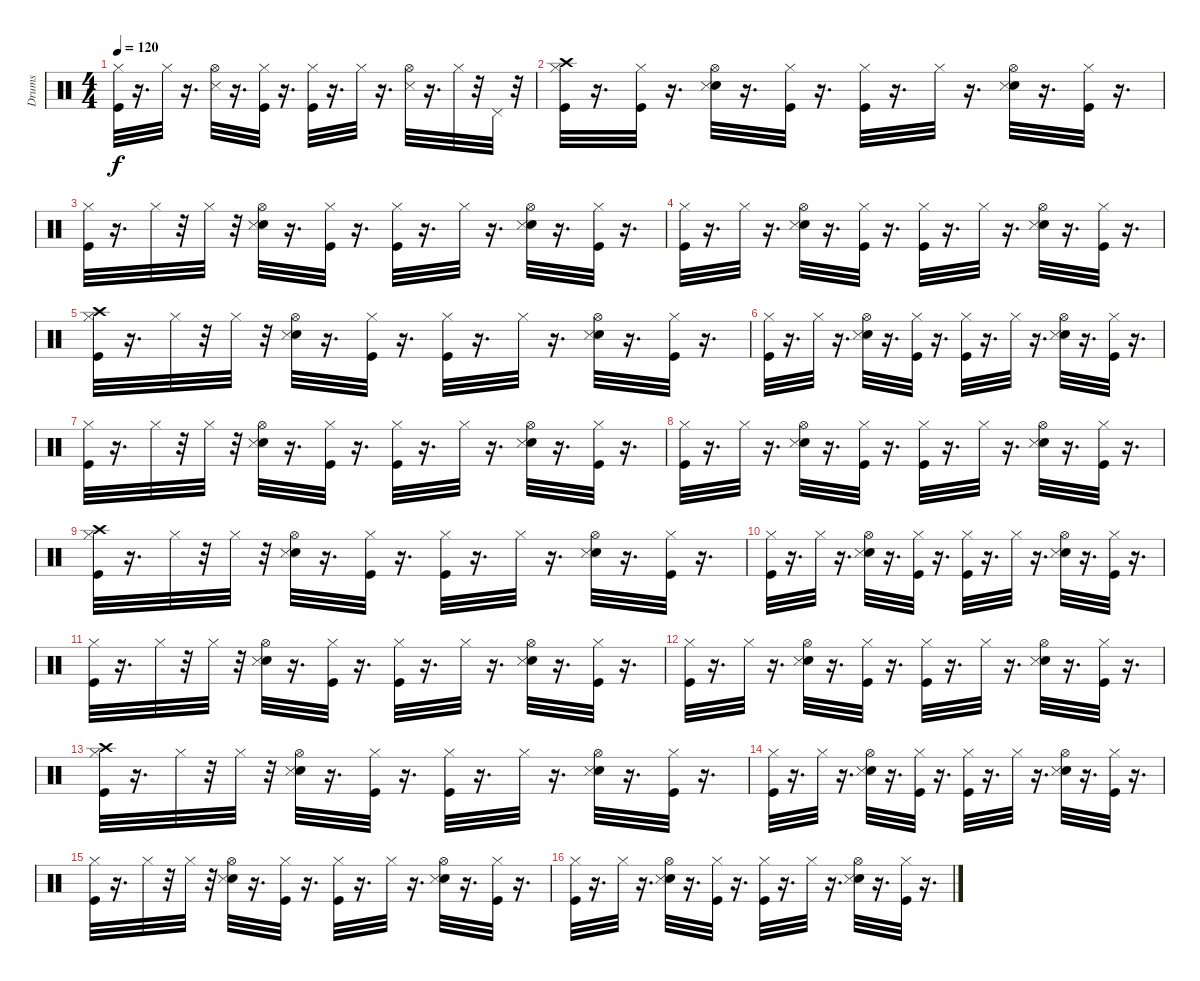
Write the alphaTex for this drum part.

\track ("Drums" "Drums") {instrument percussion}
\staff {score}
\articulation defaults
\ts (4 4)
\tempo 120
\clef neutral
\ks c
("Hi-Hat (closed)" "Kick (hit)").32{dy f} r.16{d} "Hi-Hat (closed)".32 r.16{d} ("Hi-Hat (open)" "Snare (side stick) 3").32 r.16{d} ("Hi-Hat (closed)" "Kick (hit)").32 r.16{d} ("Hi-Hat (closed)" "Kick (hit)").32 r.16{d} "Hi-Hat (closed)".32 r.16{d} ("Hi-Hat (open)" "Snare (side stick) 3").32 r.16{d} "Hi-Hat (closed)".32 r.32 "Pedal Hi-Hat (hit)".32 r.32 |
("Crash high (hit)" "Hi-Hat (closed)" "Kick (hit)").32 r.16{d} ("Kick (hit)" "Hi-Hat (closed)").32 r.16{d} ("Snare (hit) 2" "Hi-Hat (open)" "Snare (side stick) 3").32 r.16{d} ("Hi-Hat (closed)" "Kick (hit)").32 r.16{d} ("Hi-Hat (closed)" "Kick (hit)").32 r.16{d} "Hi-Hat (closed)".32 r.16{d} ("Snare (hit) 2" "Hi-Hat (open)" "Snare (side stick) 3").32 r.16{d} ("Kick (hit)" "Hi-Hat (closed)").32 r.16{d} |
("Hi-Hat (closed)" "Kick (hit)").32 r.16{d} "Hi-Hat (closed)".32 r.32 "Hi-Hat (closed)".32 r.32 ("Snare (hit) 2" "Hi-Hat (open)" "Snare (side stick) 3").32 r.16{d} ("Hi-Hat (closed)" "Kick (hit)").32 r.16{d} ("Hi-Hat (closed)" "Kick (hit)").32 r.16{d} "Hi-Hat (closed)".32 r.16{d} ("Snare (hit) 2" "Hi-Hat (open)" "Snare (side stick) 3").32 r.16{d} ("Kick (hit)" "Hi-Hat (closed)").32 r.16{d} |
("Hi-Hat (closed)" "Kick (hit)").32 r.16{d} "Hi-Hat (closed)".32 r.16{d} ("Snare (hit) 2" "Hi-Hat (open)" "Snare (side stick) 3").32 r.16{d} ("Hi-Hat (closed)" "Kick (hit)").32 r.16{d} ("Hi-Hat (closed)" "Kick (hit)").32 r.16{d} "Hi-Hat (closed)".32 r.16{d} ("Snare (hit) 2" "Hi-Hat (open)" "Snare (side stick) 3").32 r.16{d} ("Kick (hit)" "Hi-Hat (closed)").32 r.16{d} |
("Crash high (hit)" "Hi-Hat (closed)" "Kick (hit)").32 r.16{d} "Hi-Hat (closed)".32 r.32 "Hi-Hat (closed)".32 r.32 ("Snare (hit) 2" "Hi-Hat (open)" "Snare (side stick) 3").32 r.16{d} ("Hi-Hat (closed)" "Kick (hit)").32 r.16{d} ("Hi-Hat (closed)" "Kick (hit)").32 r.16{d} "Hi-Hat (closed)".32 r.16{d} ("Snare (hit) 2" "Hi-Hat (open)" "Snare (side stick) 3").32 r.16{d} ("Kick (hit)" "Hi-Hat (closed)").32 r.16{d} |
("Hi-Hat (closed)" "Kick (hit)").32 r.16{d} "Hi-Hat (closed)".32 r.16{d} ("Snare (hit) 2" "Hi-Hat (open)" "Snare (side stick) 3").32 r.16{d} ("Hi-Hat (closed)" "Kick (hit)").32 r.16{d} ("Hi-Hat (closed)" "Kick (hit)").32 r.16{d} "Hi-Hat (closed)".32 r.16{d} ("Snare (hit) 2" "Hi-Hat (open)" "Snare (side stick) 3").32 r.16{d} ("Kick (hit)" "Hi-Hat (closed)").32 r.16{d} |
("Hi-Hat (closed)" "Kick (hit)").32 r.16{d} "Hi-Hat (closed)".32 r.32 "Hi-Hat (closed)".32 r.32 ("Snare (hit) 2" "Hi-Hat (open)" "Snare (side stick) 3").32 r.16{d} ("Hi-Hat (closed)" "Kick (hit)").32 r.16{d} ("Hi-Hat (closed)" "Kick (hit)").32 r.16{d} "Hi-Hat (closed)".32 r.16{d} ("Snare (hit) 2" "Hi-Hat (open)" "Snare (side stick) 3").32 r.16{d} ("Kick (hit)" "Hi-Hat (closed)").32 r.16{d} |
("Hi-Hat (closed)" "Kick (hit)").32 r.16{d} "Hi-Hat (closed)".32 r.16{d} ("Snare (hit) 2" "Hi-Hat (open)" "Snare (side stick) 3").32 r.16{d} ("Hi-Hat (closed)" "Kick (hit)").32 r.16{d} ("Hi-Hat (closed)" "Kick (hit)").32 r.16{d} "Hi-Hat (closed)".32 r.16{d} ("Snare (hit) 2" "Hi-Hat (open)" "Snare (side stick) 3").32 r.16{d} ("Kick (hit)" "Hi-Hat (closed)").32 r.16{d} |
("Crash high (hit)" "Hi-Hat (closed)" "Kick (hit)").32 r.16{d} "Hi-Hat (closed)".32 r.32 "Hi-Hat (closed)".32 r.32 ("Snare (hit) 2" "Hi-Hat (open)" "Snare (side stick) 3").32 r.16{d} ("Hi-Hat (closed)" "Kick (hit)").32 r.16{d} ("Hi-Hat (closed)" "Kick (hit)").32 r.16{d} "Hi-Hat (closed)".32 r.16{d} ("Snare (hit) 2" "Hi-Hat (open)" "Snare (side stick) 3").32 r.16{d} ("Kick (hit)" "Hi-Hat (closed)").32 r.16{d} |
("Hi-Hat (closed)" "Kick (hit)").32 r.16{d} "Hi-Hat (closed)".32 r.16{d} ("Snare (hit) 2" "Hi-Hat (open)" "Snare (side stick) 3").32 r.16{d} ("Hi-Hat (closed)" "Kick (hit)").32 r.16{d} ("Hi-Hat (closed)" "Kick (hit)").32 r.16{d} "Hi-Hat (closed)".32 r.16{d} ("Snare (hit) 2" "Hi-Hat (open)" "Snare (side stick) 3").32 r.16{d} ("Kick (hit)" "Hi-Hat (closed)").32 r.16{d} |
("Hi-Hat (closed)" "Kick (hit)").32 r.16{d} "Hi-Hat (closed)".32 r.32 "Hi-Hat (closed)".32 r.32 ("Snare (hit) 2" "Hi-Hat (open)" "Snare (side stick) 3").32 r.16{d} ("Hi-Hat (closed)" "Kick (hit)").32 r.16{d} ("Hi-Hat (closed)" "Kick (hit)").32 r.16{d} "Hi-Hat (closed)".32 r.16{d} ("Snare (hit) 2" "Hi-Hat (open)" "Snare (side stick) 3").32 r.16{d} ("Kick (hit)" "Hi-Hat (closed)").32 r.16{d} |
("Hi-Hat (closed)" "Kick (hit)").32 r.16{d} "Hi-Hat (closed)".32 r.16{d} ("Snare (hit) 2" "Hi-Hat (open)" "Snare (side stick) 3").32 r.16{d} ("Hi-Hat (closed)" "Kick (hit)").32 r.16{d} ("Hi-Hat (closed)" "Kick (hit)").32 r.16{d} "Hi-Hat (closed)".32 r.16{d} ("Snare (hit) 2" "Hi-Hat (open)" "Snare (side stick) 3").32 r.16{d} ("Kick (hit)" "Hi-Hat (closed)").32 r.16{d} |
("Crash high (hit)" "Hi-Hat (closed)" "Kick (hit)").32 r.16{d} "Hi-Hat (closed)".32 r.32 "Hi-Hat (closed)".32 r.32 ("Snare (hit) 2" "Hi-Hat (open)" "Snare (side stick) 3").32 r.16{d} ("Hi-Hat (closed)" "Kick (hit)").32 r.16{d} ("Hi-Hat (closed)" "Kick (hit)").32 r.16{d} "Hi-Hat (closed)".32 r.16{d} ("Snare (hit) 2" "Hi-Hat (open)" "Snare (side stick) 3").32 r.16{d} ("Kick (hit)" "Hi-Hat (closed)").32 r.16{d} |
("Hi-Hat (closed)" "Kick (hit)").32 r.16{d} "Hi-Hat (closed)".32 r.16{d} ("Snare (hit) 2" "Hi-Hat (open)" "Snare (side stick) 3").32 r.16{d} ("Hi-Hat (closed)" "Kick (hit)").32 r.16{d} ("Hi-Hat (closed)" "Kick (hit)").32 r.16{d} "Hi-Hat (closed)".32 r.16{d} ("Snare (hit) 2" "Hi-Hat (open)" "Snare (side stick) 3").32 r.16{d} ("Kick (hit)" "Hi-Hat (closed)").32 r.16{d} |
("Hi-Hat (closed)" "Kick (hit)").32 r.16{d} "Hi-Hat (closed)".32 r.32 "Hi-Hat (closed)".32 r.32 ("Snare (hit) 2" "Hi-Hat (open)" "Snare (side stick) 3").32 r.16{d} ("Hi-Hat (closed)" "Kick (hit)").32 r.16{d} ("Hi-Hat (closed)" "Kick (hit)").32 r.16{d} "Hi-Hat (closed)".32 r.16{d} ("Snare (hit) 2" "Hi-Hat (open)" "Snare (side stick) 3").32 r.16{d} ("Kick (hit)" "Hi-Hat (closed)").32 r.16{d} |
("Hi-Hat (closed)" "Kick (hit)").32 r.16{d} "Hi-Hat (closed)".32 r.16{d} ("Snare (hit) 2" "Hi-Hat (open)" "Snare (side stick) 3").32 r.16{d} ("Hi-Hat (closed)" "Kick (hit)").32 r.16{d} ("Hi-Hat (closed)" "Kick (hit)").32 r.16{d} "Hi-Hat (closed)".32 r.16{d} ("Snare (hit) 2" "Hi-Hat (open)" "Snare (side stick) 3").32 r.16{d} ("Kick (hit)" "Hi-Hat (closed)").32 r.16{d}
